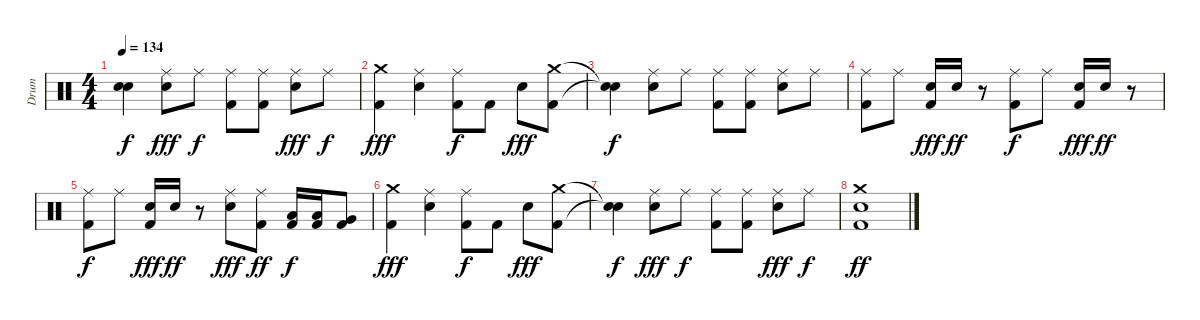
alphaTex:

\track ("Drum" "Drum") {instrument percussion}
\staff {score}
\articulation defaults
\ts (4 4)
\tempo 134
\clef neutral
\ks c
("Snare (hit)"{t} "Snare (hit)"{t}).4{dy f} ("Ride (middle)" "Snare (hit) 2").8{dy fff} "Ride (middle)".8{dy f} ("Ride (middle)" "Kick (hit) 2").8 ("Ride (middle)" "Kick (hit) 2").8 ("Ride (middle)" "Snare (hit) 2").8{dy fff} "Ride (middle)".8{dy f} |
("Crash medium (hit)" "Kick (hit) 2").4{dy fff} ("Ride (middle)" "Snare (hit) 2").4 ("Ride (middle)" "Kick (hit) 2").8{dy f} "Kick (hit) 2".8 "Snare (hit) 2".8{dy fff} ("Crash medium (hit)" "Kick (hit) 2").8 |
("Snare (hit)"{t} "Snare (hit)"{t}).4{dy f} ("Ride (middle)" "Snare (hit) 2").8 "Ride (middle)".8 ("Ride (middle)" "Kick (hit) 2").8 ("Ride (middle)" "Kick (hit) 2").8 ("Ride (middle)" "Snare (hit) 2").8 "Ride (middle)".8 |
("Ride (middle)" "Kick (hit) 2").8 "Ride (middle)".8 ("Snare (hit) 2" "Kick (hit) 2").16{dy fff} "Snare (hit) 2".16{dy ff} r.8 ("Ride (middle)" "Kick (hit) 2").8{dy f} "Ride (middle)".8 ("Snare (hit) 2" "Kick (hit) 2").16{dy fff} "Snare (hit) 2".16{dy ff} r.8 |
("Ride (middle)" "Kick (hit) 2").8{dy f} "Ride (middle)".8 ("Snare (hit) 2" "Kick (hit) 2").16{dy fff} "Snare (hit) 2".16{dy ff} r.8 ("Ride (middle)" "Snare (hit) 2").8{dy fff} ("Ride (middle)" "Kick (hit) 2").8{dy ff} ("Low Tom (hit)" "Kick (hit) 2").16{dy f} ("Low Tom (hit)" "Kick (hit) 2").16 ("Very Low Tom (hit)" "Kick (hit) 2").8 |
("Crash medium (hit)" "Kick (hit) 2").4{dy fff} ("Ride (middle)" "Snare (hit) 2").4 ("Ride (middle)" "Kick (hit) 2").8{dy f} "Kick (hit) 2".8 "Snare (hit) 2".8{dy fff} ("Crash medium (hit)" "Kick (hit) 2").8 |
("Snare (hit)"{t} "Snare (hit)"{t}).4{dy f} ("Ride (middle)" "Snare (hit) 2").8{dy fff} "Ride (middle)".8{dy f} ("Ride (middle)" "Kick (hit) 2").8 ("Ride (middle)" "Kick (hit) 2").8 ("Ride (middle)" "Snare (hit) 2").8{dy fff} "Ride (middle)".8{dy f} |
("Crash medium (hit)" "Snare (hit) 2" "Kick (hit) 2").1{dy ff}
